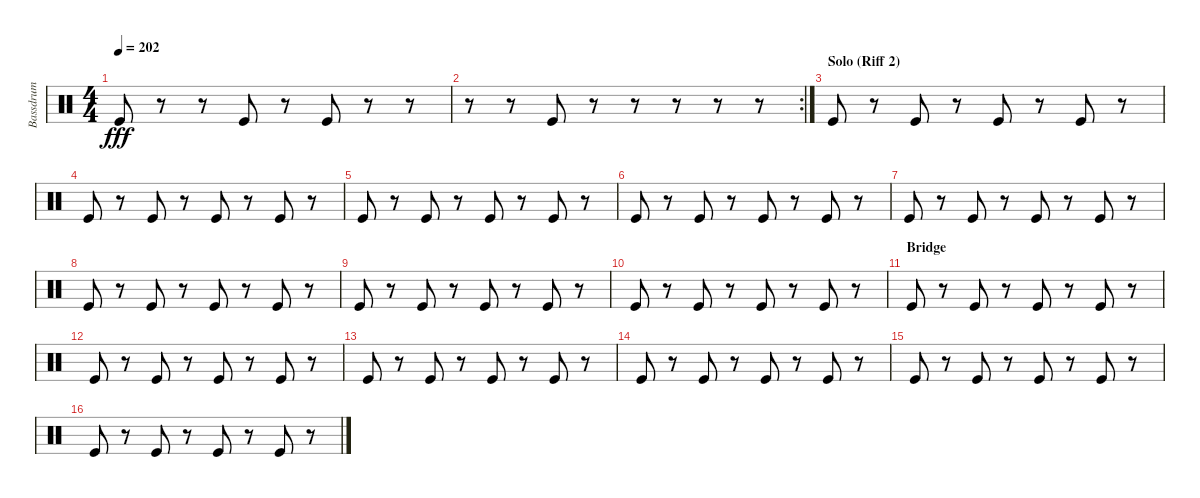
\track ("Bassdrum" "Bassdrum") {instrument percussion}
\staff {score}
\articulation defaults
\ts (4 4)
\tempo 202
\clef neutral
\ks c "Kick (hit)".8{dy fff}
r.8 r.8 "Kick (hit)".8 r.8 "Kick (hit)".8 r.8 r.8 |
\rc 2
r.8 r.8 "Kick (hit)".8 r.8 r.8 r.8 r.8 r.8 |
\section ("" "Solo (Riff 2)")
"Kick (hit)".8 r.8 "Kick (hit)".8 r.8 "Kick (hit)".8 r.8 "Kick (hit)".8 r.8 |
"Kick (hit)".8 r.8 "Kick (hit)".8 r.8 "Kick (hit)".8 r.8 "Kick (hit)".8 r.8 |
"Kick (hit)".8 r.8 "Kick (hit)".8 r.8 "Kick (hit)".8 r.8 "Kick (hit)".8 r.8 |
"Kick (hit)".8 r.8 "Kick (hit)".8 r.8 "Kick (hit)".8 r.8 "Kick (hit)".8 r.8 |
"Kick (hit)".8 r.8 "Kick (hit)".8 r.8 "Kick (hit)".8 r.8 "Kick (hit)".8 r.8 |
"Kick (hit)".8 r.8 "Kick (hit)".8 r.8 "Kick (hit)".8 r.8 "Kick (hit)".8 r.8 |
"Kick (hit)".8 r.8 "Kick (hit)".8 r.8 "Kick (hit)".8 r.8 "Kick (hit)".8 r.8 |
"Kick (hit)".8 r.8 "Kick (hit)".8 r.8 "Kick (hit)".8 r.8 "Kick (hit)".8 r.8 |
\section ("" "Bridge")
"Kick (hit)".8 r.8 "Kick (hit)".8 r.8 "Kick (hit)".8 r.8 "Kick (hit)".8 r.8 |
"Kick (hit)".8 r.8 "Kick (hit)".8 r.8 "Kick (hit)".8 r.8 "Kick (hit)".8 r.8 |
"Kick (hit)".8 r.8 "Kick (hit)".8 r.8 "Kick (hit)".8 r.8 "Kick (hit)".8 r.8 |
"Kick (hit)".8 r.8 "Kick (hit)".8 r.8 "Kick (hit)".8 r.8 "Kick (hit)".8 r.8 |
"Kick (hit)".8 r.8 "Kick (hit)".8 r.8 "Kick (hit)".8 r.8 "Kick (hit)".8 r.8 |
"Kick (hit)".8 r.8 "Kick (hit)".8 r.8 "Kick (hit)".8 r.8 "Kick (hit)".8 r.8
